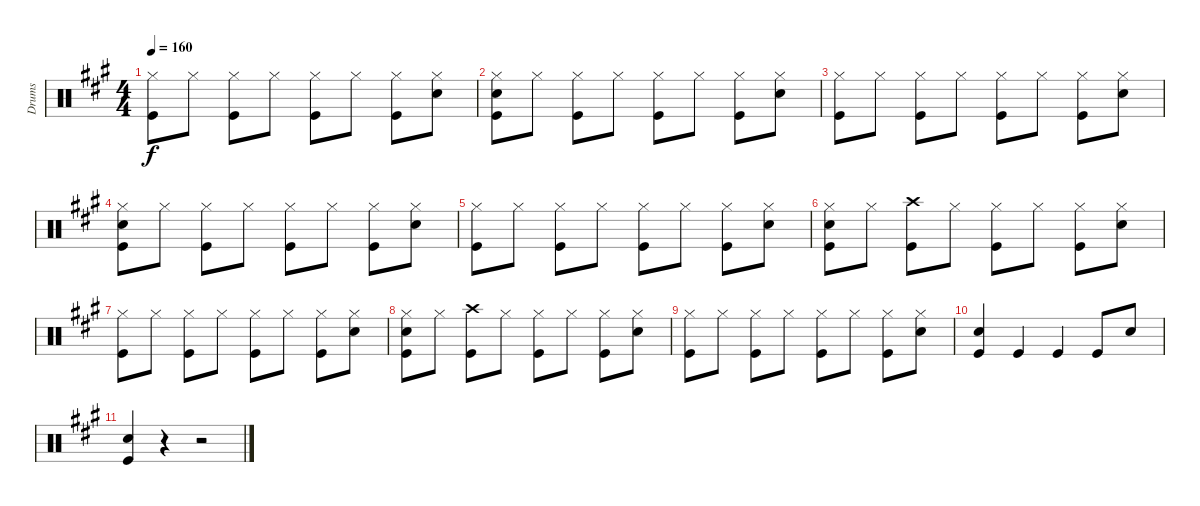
\track ("Drums" "Drums") {instrument percussion}
\staff {score}
\articulation defaults
\ts (4 4)
\tempo 160
\clef neutral
\ks a
("Kick (hit)" "Hi-Hat (closed)").8{dy f} "Hi-Hat (closed)".8 ("Hi-Hat (closed)" "Kick (hit)").8 "Hi-Hat (closed)".8 ("Hi-Hat (closed)" "Kick (hit)").8 "Hi-Hat (closed)".8 ("Hi-Hat (closed)" "Kick (hit)").8 ("Hi-Hat (closed)" "Snare (hit) 2").8 |
("Snare (hit) 2" "Hi-Hat (closed)" "Kick (hit)").8 "Hi-Hat (closed)".8 ("Hi-Hat (closed)" "Kick (hit)").8 "Hi-Hat (closed)".8 ("Hi-Hat (closed)" "Kick (hit)").8 "Hi-Hat (closed)".8 ("Hi-Hat (closed)" "Kick (hit)").8 ("Hi-Hat (closed)" "Snare (hit) 2").8 |
("Kick (hit)" "Hi-Hat (closed)").8 "Hi-Hat (closed)".8 ("Hi-Hat (closed)" "Kick (hit)").8 "Hi-Hat (closed)".8 ("Hi-Hat (closed)" "Kick (hit)").8 "Hi-Hat (closed)".8 ("Hi-Hat (closed)" "Kick (hit)").8 ("Hi-Hat (closed)" "Snare (hit) 2").8 |
("Snare (hit) 2" "Hi-Hat (closed)" "Kick (hit)").8 "Hi-Hat (closed)".8 ("Hi-Hat (closed)" "Kick (hit)").8 "Hi-Hat (closed)".8 ("Hi-Hat (closed)" "Kick (hit)").8 "Hi-Hat (closed)".8 ("Hi-Hat (closed)" "Kick (hit)").8 ("Hi-Hat (closed)" "Snare (hit) 2").8 |
("Kick (hit)" "Hi-Hat (closed)").8 "Hi-Hat (closed)".8 ("Hi-Hat (closed)" "Kick (hit)").8 "Hi-Hat (closed)".8 ("Hi-Hat (closed)" "Kick (hit)").8 "Hi-Hat (closed)".8 ("Hi-Hat (closed)" "Kick (hit)").8 ("Hi-Hat (closed)" "Snare (hit) 2").8 |
("Snare (hit) 2" "Hi-Hat (closed)" "Kick (hit)").8 "Hi-Hat (closed)".8 ("Kick (hit)" "Crash high (hit)").8 "Hi-Hat (closed)".8 ("Hi-Hat (closed)" "Kick (hit)").8 "Hi-Hat (closed)".8 ("Hi-Hat (closed)" "Kick (hit)").8 ("Hi-Hat (closed)" "Snare (hit) 2").8 |
("Kick (hit)" "Hi-Hat (closed)").8 "Hi-Hat (closed)".8 ("Hi-Hat (closed)" "Kick (hit)").8 "Hi-Hat (closed)".8 ("Hi-Hat (closed)" "Kick (hit)").8 "Hi-Hat (closed)".8 ("Hi-Hat (closed)" "Kick (hit)").8 ("Hi-Hat (closed)" "Snare (hit) 2").8 |
("Snare (hit) 2" "Hi-Hat (closed)" "Kick (hit)").8 "Hi-Hat (closed)".8 ("Kick (hit)" "Crash high (hit)").8 "Hi-Hat (closed)".8 ("Hi-Hat (closed)" "Kick (hit)").8 "Hi-Hat (closed)".8 ("Hi-Hat (closed)" "Kick (hit)").8 ("Hi-Hat (closed)" "Snare (hit) 2").8 |
("Kick (hit)" "Hi-Hat (closed)").8 "Hi-Hat (closed)".8 ("Hi-Hat (closed)" "Kick (hit)").8 "Hi-Hat (closed)".8 ("Hi-Hat (closed)" "Kick (hit)").8 "Hi-Hat (closed)".8 ("Hi-Hat (closed)" "Kick (hit)").8 ("Hi-Hat (closed)" "Snare (hit) 2").8 |
("Snare (hit) 2" "Kick (hit)").4 "Kick (hit)".4 "Kick (hit)".4 "Kick (hit)".8 "Snare (hit) 2".8 |
("Snare (hit) 2" "Kick (hit)").4 r.4 r.2
